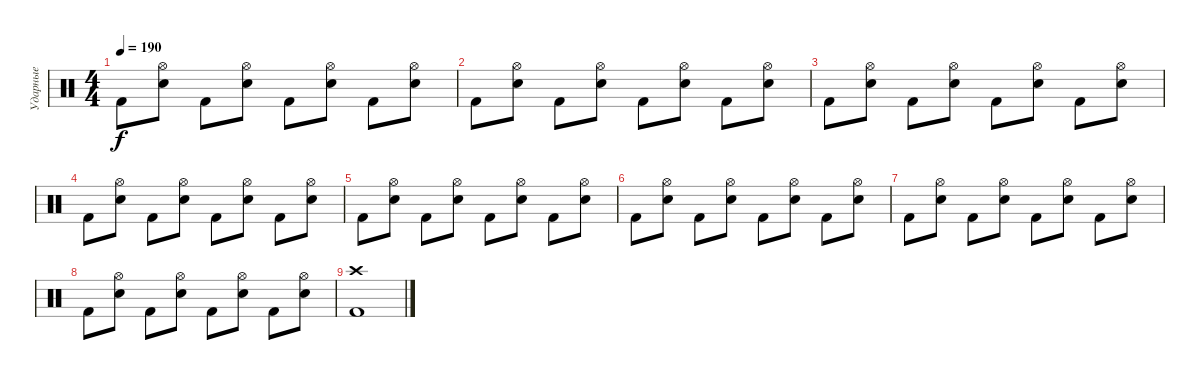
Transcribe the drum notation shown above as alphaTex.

\track ("Ударные" "Ударные") {instrument percussion}
\staff {score}
\articulation defaults
\ts (4 4)
\tempo 190
\clef neutral
\ks c "Kick (hit) 2".8{dy f}
("Hi-Hat (open)" "Electric Snare (hit)").8 "Kick (hit) 2".8 ("Hi-Hat (open)" "Electric Snare (hit)").8 "Kick (hit) 2".8 ("Hi-Hat (open)" "Electric Snare (hit)").8 "Kick (hit) 2".8 ("Hi-Hat (open)" "Electric Snare (hit)").8 |
"Kick (hit) 2".8 ("Hi-Hat (open)" "Electric Snare (hit)").8 "Kick (hit) 2".8 ("Hi-Hat (open)" "Electric Snare (hit)").8 "Kick (hit) 2".8 ("Hi-Hat (open)" "Electric Snare (hit)").8 "Kick (hit) 2".8 ("Hi-Hat (open)" "Electric Snare (hit)").8 |
"Kick (hit) 2".8 ("Hi-Hat (open)" "Electric Snare (hit)").8 "Kick (hit) 2".8 ("Hi-Hat (open)" "Electric Snare (hit)").8 "Kick (hit) 2".8 ("Hi-Hat (open)" "Electric Snare (hit)").8 "Kick (hit) 2".8 ("Hi-Hat (open)" "Electric Snare (hit)").8 |
"Kick (hit) 2".8 ("Hi-Hat (open)" "Electric Snare (hit)").8 "Kick (hit) 2".8 ("Hi-Hat (open)" "Electric Snare (hit)").8 "Kick (hit) 2".8 ("Hi-Hat (open)" "Electric Snare (hit)").8 "Kick (hit) 2".8 ("Hi-Hat (open)" "Electric Snare (hit)").8 |
"Kick (hit) 2".8 ("Hi-Hat (open)" "Electric Snare (hit)").8 "Kick (hit) 2".8 ("Hi-Hat (open)" "Electric Snare (hit)").8 "Kick (hit) 2".8 ("Hi-Hat (open)" "Electric Snare (hit)").8 "Kick (hit) 2".8 ("Hi-Hat (open)" "Electric Snare (hit)").8 |
"Kick (hit) 2".8 ("Hi-Hat (open)" "Electric Snare (hit)").8 "Kick (hit) 2".8 ("Hi-Hat (open)" "Electric Snare (hit)").8 "Kick (hit) 2".8 ("Hi-Hat (open)" "Electric Snare (hit)").8 "Kick (hit) 2".8 ("Hi-Hat (open)" "Electric Snare (hit)").8 |
"Kick (hit) 2".8 ("Hi-Hat (open)" "Electric Snare (hit)").8 "Kick (hit) 2".8 ("Hi-Hat (open)" "Electric Snare (hit)").8 "Kick (hit) 2".8 ("Hi-Hat (open)" "Electric Snare (hit)").8 "Kick (hit) 2".8 ("Hi-Hat (open)" "Electric Snare (hit)").8 |
"Kick (hit) 2".8 ("Hi-Hat (open)" "Electric Snare (hit)").8 "Kick (hit) 2".8 ("Hi-Hat (open)" "Electric Snare (hit)").8 "Kick (hit) 2".8 ("Hi-Hat (open)" "Electric Snare (hit)").8 "Kick (hit) 2".8 ("Hi-Hat (open)" "Electric Snare (hit)").8 |
("Crash high (hit)" "Kick (hit) 2").1
